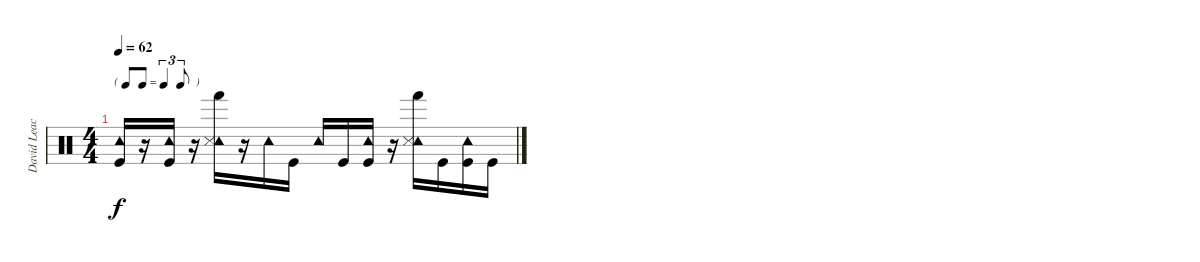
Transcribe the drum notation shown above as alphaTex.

\track ("David Leach-(Percussions)" "David Leac") {instrument percussion}
\staff {score}
\articulation defaults
\ts (4 4)
\tf triplet8th
\tempo 62
\clef neutral
\ks c
("Tambourine (hit)" "Kick (hit)").16{dy f} r.16 ("Tambourine (hit)" "Kick (hit)").16 r.16 ("Tambourine (hit)" "Snare (side stick) 3" "Hand (hit)").16 r.16 "Tambourine (hit)".16 "Kick (hit)".16 "Tambourine (hit)".16 "Kick (hit)".16 ("Tambourine (hit)" "Kick (hit)").16 r.16 ("Tambourine (hit)" "Snare (side stick) 3" "Hand (hit)").16 "Kick (hit)".16 ("Tambourine (hit)" "Kick (hit)").16 "Kick (hit)".16
